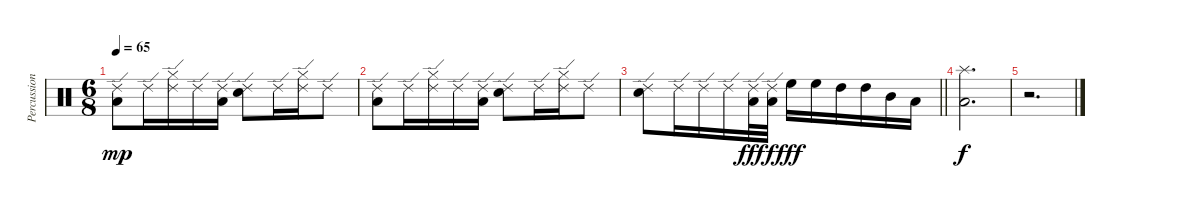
\track ("Percussions" "Percussion") {instrument percussion}
\staff {score}
\articulation defaults
\ts (6 8)
\tempo 65
\clef neutral
\ks c
("Ride (edge) 2" "Low Tom (hit)").8{dy mp} "Ride (edge) 2".16 ("Ride (edge) 2" "Hi-Hat (closed)").16 "Ride (edge) 2".16 ("Ride (edge) 2" "Low Tom (hit)").16 ("Ride (edge) 2" "Electric Snare (hit)").8 "Ride (edge) 2".16 ("Ride (edge) 2" "Hi-Hat (closed)").16 "Ride (edge) 2".8 |
("Ride (edge) 2" "Low Tom (hit)").8 "Ride (edge) 2".16 ("Ride (edge) 2" "Hi-Hat (closed)").16 "Ride (edge) 2".16 ("Ride (edge) 2" "Low Tom (hit)").16 ("Ride (edge) 2" "Electric Snare (hit)").8 "Ride (edge) 2".16 ("Ride (edge) 2" "Hi-Hat (closed)").16 "Ride (edge) 2".8 |
\barLineRight lightlight
("Ride (edge) 2" "Electric Snare (hit)").8 "Ride (edge) 2".16 "Ride (edge) 2".16 "Ride (edge) 2".16 ("Ride (edge) 2" "Low Tom (hit)").32{dy fff} ("Ride (edge) 2" "Low Tom (hit)").32{dy f} "High Floor Tom (hit)".16{dy fff} "High Floor Tom (hit)".16 "High Tom (hit)".16 "High Tom (hit)".16 "Mid Tom (hit)".16 "Low Tom (hit)".16 |
("Splash (hit)" "Low Tom (hit)").2{d dy f} |
r.2{d}
